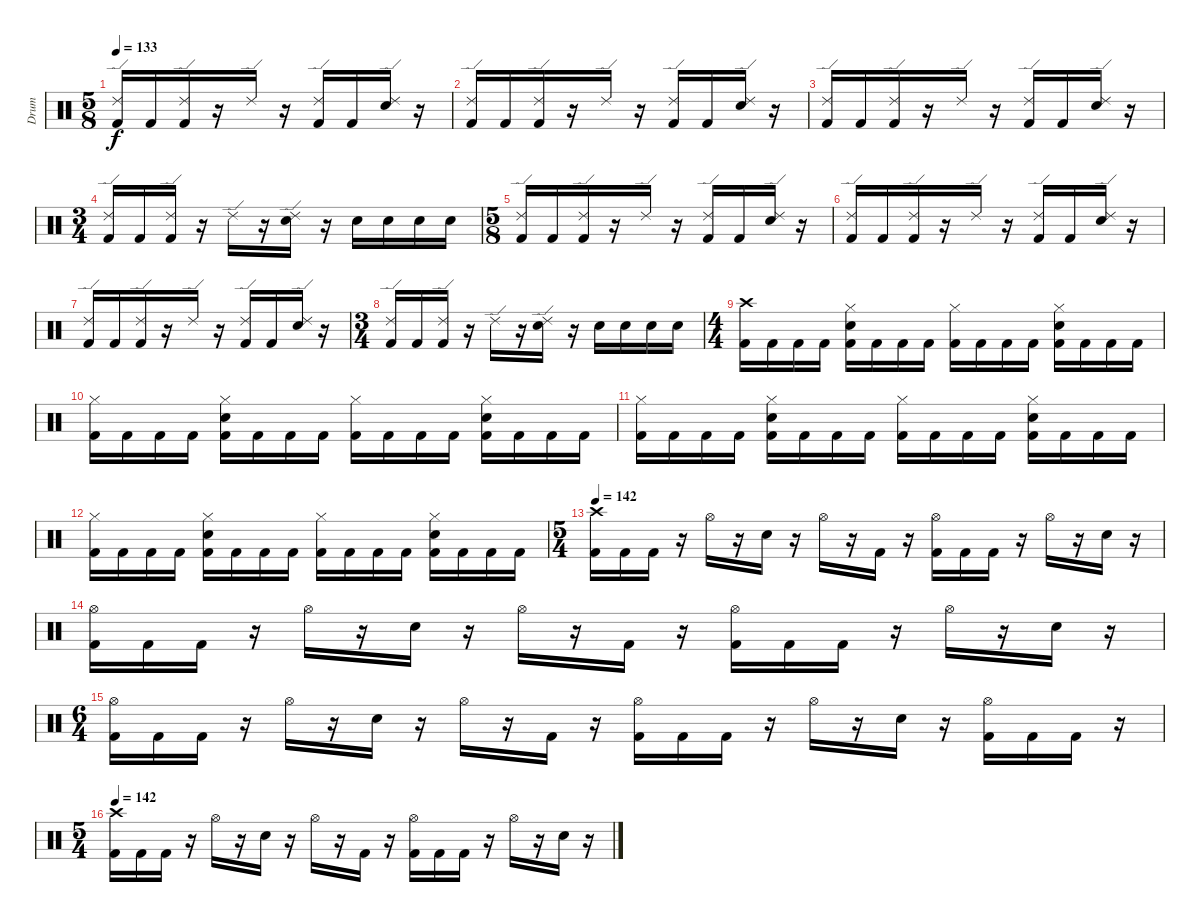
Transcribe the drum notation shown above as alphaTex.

\track ("Drum" "Drum") {instrument percussion}
\staff {score}
\articulation defaults
\ts (5 8)
\tempo 133
\clef neutral
\ks c
("Ride (edge) 2" "Kick (hit) 2").16{dy f} "Kick (hit) 2".16 ("Ride (edge) 2" "Kick (hit) 2").16 r.16 "Ride (edge) 2".16 r.16 ("Ride (edge) 2" "Kick (hit) 2").16 "Kick (hit) 2".16 ("Ride (edge) 2" "Snare (hit) 2").16 r.16 |
("Ride (edge) 2" "Kick (hit) 2").16 "Kick (hit) 2".16 ("Ride (edge) 2" "Kick (hit) 2").16 r.16 "Ride (edge) 2".16 r.16 ("Ride (edge) 2" "Kick (hit) 2").16 "Kick (hit) 2".16 ("Ride (edge) 2" "Snare (hit) 2").16 r.16 |
("Ride (edge) 2" "Kick (hit) 2").16 "Kick (hit) 2".16 ("Ride (edge) 2" "Kick (hit) 2").16 r.16 "Ride (edge) 2".16 r.16 ("Ride (edge) 2" "Kick (hit) 2").16 "Kick (hit) 2".16 ("Ride (edge) 2" "Snare (hit) 2").16 r.16 |
\ts (3 4)
("Ride (edge) 2" "Kick (hit) 2").16 "Kick (hit) 2".16 ("Ride (edge) 2" "Kick (hit) 2").16 r.16 "Ride (edge) 2".16 r.16 ("Ride (edge) 2" "Snare (hit) 2").16 r.16 "Snare (hit) 2".16 "Snare (hit) 2".16 "Snare (hit) 2".16 "Snare (hit) 2".16 |
\ts (5 8)
("Ride (edge) 2" "Kick (hit) 2").16 "Kick (hit) 2".16 ("Ride (edge) 2" "Kick (hit) 2").16 r.16 "Ride (edge) 2".16 r.16 ("Ride (edge) 2" "Kick (hit) 2").16 "Kick (hit) 2".16 ("Ride (edge) 2" "Snare (hit) 2").16 r.16 |
("Ride (edge) 2" "Kick (hit) 2").16 "Kick (hit) 2".16 ("Ride (edge) 2" "Kick (hit) 2").16 r.16 "Ride (edge) 2".16 r.16 ("Ride (edge) 2" "Kick (hit) 2").16 "Kick (hit) 2".16 ("Ride (edge) 2" "Snare (hit) 2").16 r.16 |
("Ride (edge) 2" "Kick (hit) 2").16 "Kick (hit) 2".16 ("Ride (edge) 2" "Kick (hit) 2").16 r.16 "Ride (edge) 2".16 r.16 ("Ride (edge) 2" "Kick (hit) 2").16 "Kick (hit) 2".16 ("Ride (edge) 2" "Snare (hit) 2").16 r.16 |
\ts (3 4)
("Ride (edge) 2" "Kick (hit) 2").16 "Kick (hit) 2".16 ("Ride (edge) 2" "Kick (hit) 2").16 r.16 "Ride (edge) 2".16 r.16 ("Ride (edge) 2" "Snare (hit) 2").16 r.16 "Snare (hit) 2".16 "Snare (hit) 2".16 "Snare (hit) 2".16 "Snare (hit) 2".16 |
\ts (4 4)
("Crash high (hit)" "Kick (hit) 2").16 "Kick (hit) 2".16 "Kick (hit) 2".16 "Kick (hit) 2".16 ("Hi-Hat (closed)" "Snare (hit) 2" "Kick (hit) 2").16 "Kick (hit) 2".16 "Kick (hit) 2".16 "Kick (hit) 2".16 ("Hi-Hat (closed)" "Kick (hit) 2").16 "Kick (hit) 2".16 "Kick (hit) 2".16 "Kick (hit) 2".16 ("Hi-Hat (closed)" "Snare (hit) 2" "Kick (hit) 2").16 "Kick (hit) 2".16 "Kick (hit) 2".16 "Kick (hit) 2".16 |
("Hi-Hat (closed)" "Kick (hit) 2").16 "Kick (hit) 2".16 "Kick (hit) 2".16 "Kick (hit) 2".16 ("Hi-Hat (closed)" "Snare (hit) 2" "Kick (hit) 2").16 "Kick (hit) 2".16 "Kick (hit) 2".16 "Kick (hit) 2".16 ("Hi-Hat (closed)" "Kick (hit) 2").16 "Kick (hit) 2".16 "Kick (hit) 2".16 "Kick (hit) 2".16 ("Hi-Hat (closed)" "Snare (hit) 2" "Kick (hit) 2").16 "Kick (hit) 2".16 "Kick (hit) 2".16 "Kick (hit) 2".16 |
("Hi-Hat (closed)" "Kick (hit) 2").16 "Kick (hit) 2".16 "Kick (hit) 2".16 "Kick (hit) 2".16 ("Hi-Hat (closed)" "Snare (hit) 2" "Kick (hit) 2").16 "Kick (hit) 2".16 "Kick (hit) 2".16 "Kick (hit) 2".16 ("Hi-Hat (closed)" "Kick (hit) 2").16 "Kick (hit) 2".16 "Kick (hit) 2".16 "Kick (hit) 2".16 ("Hi-Hat (closed)" "Snare (hit) 2" "Kick (hit) 2").16 "Kick (hit) 2".16 "Kick (hit) 2".16 "Kick (hit) 2".16 |
("Hi-Hat (closed)" "Kick (hit) 2").16 "Kick (hit) 2".16 "Kick (hit) 2".16 "Kick (hit) 2".16 ("Hi-Hat (closed)" "Snare (hit) 2" "Kick (hit) 2").16 "Kick (hit) 2".16 "Kick (hit) 2".16 "Kick (hit) 2".16 ("Hi-Hat (closed)" "Kick (hit) 2").16 "Kick (hit) 2".16 "Kick (hit) 2".16 "Kick (hit) 2".16 ("Hi-Hat (closed)" "Snare (hit) 2" "Kick (hit) 2").16 "Kick (hit) 2".16 "Kick (hit) 2".16 "Kick (hit) 2".16 |
\ts (5 4)
\tempo 142
("Crash high (hit)" "Kick (hit) 2").16 "Kick (hit) 2".16 "Kick (hit) 2".16 r.16 "Hi-Hat (open)".16 r.16 "Snare (hit) 2".16 r.16 "Hi-Hat (open)".16 r.16 "Kick (hit) 2".16 r.16 ("Hi-Hat (open)" "Kick (hit) 2").16 "Kick (hit) 2".16 "Kick (hit) 2".16 r.16 "Hi-Hat (open)".16 r.16 "Snare (hit) 2".16 r.16 |
("Hi-Hat (open)" "Kick (hit) 2").16 "Kick (hit) 2".16 "Kick (hit) 2".16 r.16 "Hi-Hat (open)".16 r.16 "Snare (hit) 2".16 r.16 "Hi-Hat (open)".16 r.16 "Kick (hit) 2".16 r.16 ("Hi-Hat (open)" "Kick (hit) 2").16 "Kick (hit) 2".16 "Kick (hit) 2".16 r.16 "Hi-Hat (open)".16 r.16 "Snare (hit) 2".16 r.16 |
\ts (6 4)
("Hi-Hat (open)" "Kick (hit) 2").16 "Kick (hit) 2".16 "Kick (hit) 2".16 r.16 "Hi-Hat (open)".16 r.16 "Snare (hit) 2".16 r.16 "Hi-Hat (open)".16 r.16 "Kick (hit) 2".16 r.16 ("Hi-Hat (open)" "Kick (hit) 2").16 "Kick (hit) 2".16 "Kick (hit) 2".16 r.16 "Hi-Hat (open)".16 r.16 "Snare (hit) 2".16 r.16 ("Hi-Hat (open)" "Kick (hit) 2").16 "Kick (hit) 2".16 "Kick (hit) 2".16 r.16 |
\ts (5 4)
\tempo 142
("Crash high (hit)" "Kick (hit) 2").16 "Kick (hit) 2".16 "Kick (hit) 2".16 r.16 "Hi-Hat (open)".16 r.16 "Snare (hit) 2".16 r.16 "Hi-Hat (open)".16 r.16 "Kick (hit) 2".16 r.16 ("Hi-Hat (open)" "Kick (hit) 2").16 "Kick (hit) 2".16 "Kick (hit) 2".16 r.16 "Hi-Hat (open)".16 r.16 "Snare (hit) 2".16 r.16
